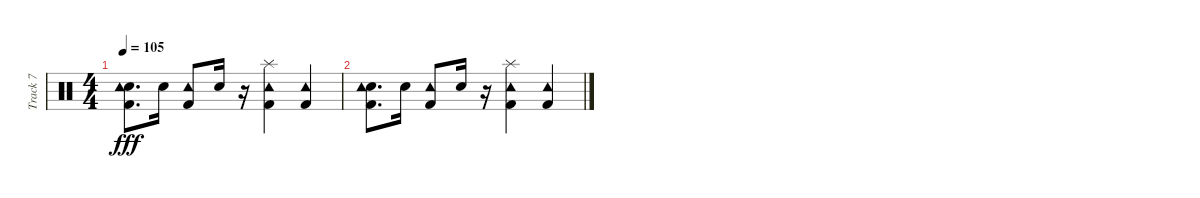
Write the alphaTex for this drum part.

\track ("Track 7" "Track 7") {instrument percussion}
\staff {score}
\articulation defaults
\ts (4 4)
\tempo 105
\clef neutral
\ks c
("Snare (hit) 2" "Kick (hit) 2" "Tambourine (hit)").8{d dy fff} "Snare (hit) 2".16 ("Kick (hit) 2" "Tambourine (hit)").8 "Snare (hit) 2".16 r.16 ("Kick (hit) 2" "Splash (hit)" "Tambourine (hit)").4 ("Kick (hit) 2" "Tambourine (hit)").4 |
("Kick (hit) 2" "Snare (hit) 2" "Tambourine (hit)").8{d} "Snare (hit) 2".16 ("Kick (hit) 2" "Tambourine (hit)").8 "Snare (hit) 2".16 r.16 ("Kick (hit) 2" "Splash (hit)" "Tambourine (hit)").4 ("Kick (hit) 2" "Tambourine (hit)").4
